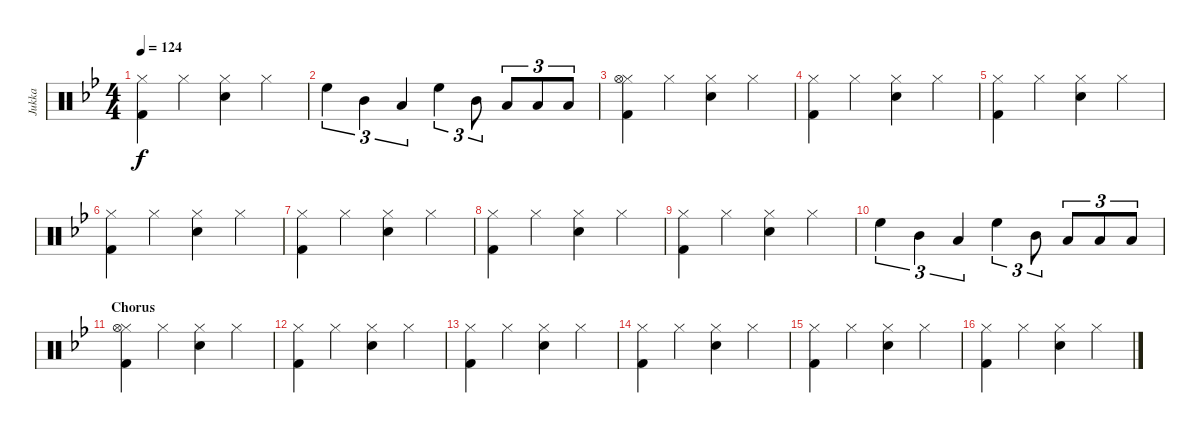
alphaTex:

\track ("Jukka" "Jukka") {instrument percussion}
\staff {score}
\articulation defaults
\ts (4 4)
\tempo 124
\clef neutral
\ks bb
("Hi-Hat (closed)" "Kick (hit) 2").4{dy f} "Hi-Hat (closed)".4 ("Hi-Hat (closed)" "Snare (hit) 2").4 "Hi-Hat (closed)".4 |
"High Floor Tom (hit)".4{tu (3 2)} "Mid Tom (hit)".4{tu (3 2)} "Low Tom (hit)".4{tu (3 2)} "High Floor Tom (hit)".4{tu (3 2)} "Mid Tom (hit)".8{tu (3 2)} "Low Tom (hit)".8{tu (3 2)} "Low Tom (hit)".8{tu (3 2)} "Low Floor Tom (hit)".8{tu (3 2)} |
("Hi-Hat (closed)" "Hi-Hat (open)" "Kick (hit) 2").4 "Hi-Hat (closed)".4 ("Hi-Hat (closed)" "Snare (hit) 2").4 "Hi-Hat (closed)".4 |
("Hi-Hat (closed)" "Kick (hit) 2").4 "Hi-Hat (closed)".4 ("Hi-Hat (closed)" "Snare (hit) 2").4 "Hi-Hat (closed)".4 |
("Hi-Hat (closed)" "Kick (hit) 2").4 "Hi-Hat (closed)".4 ("Hi-Hat (closed)" "Snare (hit) 2").4 "Hi-Hat (closed)".4 |
("Hi-Hat (closed)" "Kick (hit) 2").4 "Hi-Hat (closed)".4 ("Hi-Hat (closed)" "Snare (hit) 2").4 "Hi-Hat (closed)".4 |
("Hi-Hat (closed)" "Kick (hit) 2").4 "Hi-Hat (closed)".4 ("Hi-Hat (closed)" "Snare (hit) 2").4 "Hi-Hat (closed)".4 |
("Hi-Hat (closed)" "Kick (hit) 2").4 "Hi-Hat (closed)".4 ("Hi-Hat (closed)" "Snare (hit) 2").4 "Hi-Hat (closed)".4 |
("Hi-Hat (closed)" "Kick (hit) 2").4 "Hi-Hat (closed)".4 ("Hi-Hat (closed)" "Snare (hit) 2").4 "Hi-Hat (closed)".4 |
"High Floor Tom (hit)".4{tu (3 2)} "Mid Tom (hit)".4{tu (3 2)} "Low Tom (hit)".4{tu (3 2)} "High Floor Tom (hit)".4{tu (3 2)} "Mid Tom (hit)".8{tu (3 2)} "Low Tom (hit)".8{tu (3 2)} "Low Tom (hit)".8{tu (3 2)} "Low Floor Tom (hit)".8{tu (3 2)} |
\section ("" "Chorus")
("Hi-Hat (closed)" "Hi-Hat (open)" "Kick (hit) 2").4 "Hi-Hat (closed)".4 ("Hi-Hat (closed)" "Snare (hit) 2").4 "Hi-Hat (closed)".4 |
("Hi-Hat (closed)" "Kick (hit) 2").4 "Hi-Hat (closed)".4 ("Hi-Hat (closed)" "Snare (hit) 2").4 "Hi-Hat (closed)".4 |
("Hi-Hat (closed)" "Kick (hit) 2").4 "Hi-Hat (closed)".4 ("Hi-Hat (closed)" "Snare (hit) 2").4 "Hi-Hat (closed)".4 |
("Hi-Hat (closed)" "Kick (hit) 2").4 "Hi-Hat (closed)".4 ("Hi-Hat (closed)" "Snare (hit) 2").4 "Hi-Hat (closed)".4 |
("Hi-Hat (closed)" "Kick (hit) 2").4 "Hi-Hat (closed)".4 ("Hi-Hat (closed)" "Snare (hit) 2").4 "Hi-Hat (closed)".4 |
("Hi-Hat (closed)" "Kick (hit) 2").4 "Hi-Hat (closed)".4 ("Hi-Hat (closed)" "Snare (hit) 2").4 "Hi-Hat (closed)".4
